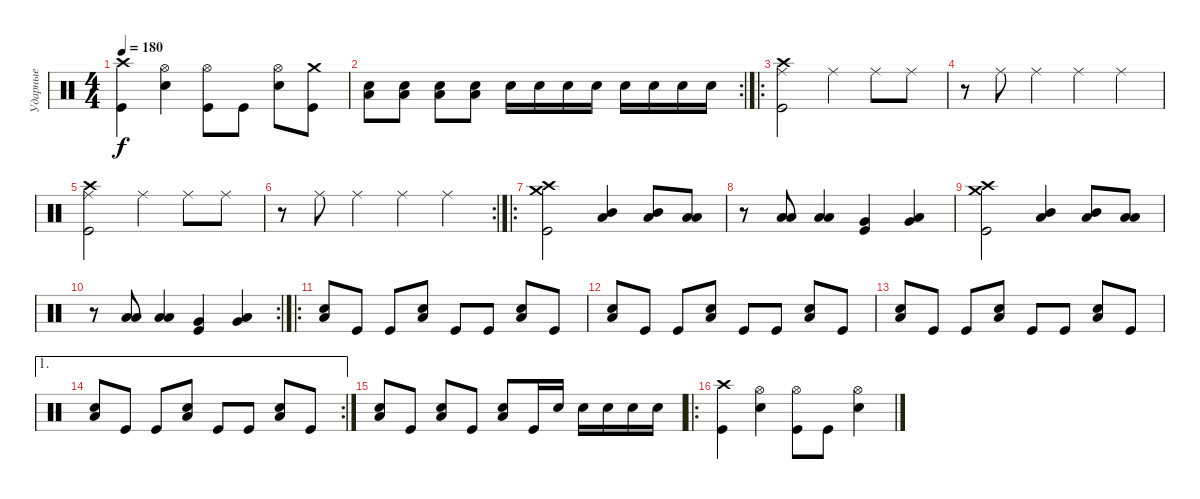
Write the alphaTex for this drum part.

\track ("Ударные" "Ударные") {instrument percussion}
\staff {score}
\articulation defaults
\ts (4 4)
\tempo 180
\clef neutral
\ks c
("Crash high (hit)" "Kick (hit)").4{dy f} ("Hi-Hat (open)" "Electric Snare (hit)").4 ("Hi-Hat (open)" "Kick (hit)").8 "Kick (hit)".8 ("Hi-Hat (open)" "Electric Snare (hit)").8 ("Crash medium (hit)" "Kick (hit)").8 |
\rc 2
("Low Floor Tom (hit)" "Electric Snare (hit)").8 ("Low Floor Tom (hit)" "Electric Snare (hit)").8 ("Low Floor Tom (hit)" "Electric Snare (hit)").8 ("Low Floor Tom (hit)" "Electric Snare (hit)").8 "Electric Snare (hit)".16 "Electric Snare (hit)".16 "Electric Snare (hit)".16 "Electric Snare (hit)".16 "Electric Snare (hit)".16 "Electric Snare (hit)".16 "Electric Snare (hit)".16 "Electric Snare (hit)".16 |
\ro
("Crash high (hit)" "Ride (middle)" "Kick (hit)").2 "Ride (middle)".4 "Ride (middle)".8 "Ride (middle)".8 |
r.8 "Ride (middle)".8 "Ride (middle)".4 "Ride (middle)".4 "Ride (middle)".4 |
("Crash high (hit)" "Ride (middle)" "Kick (hit)").2 "Ride (middle)".4 "Ride (middle)".8 "Ride (middle)".8 |
\rc 2
r.8 "Ride (middle)".8 "Ride (middle)".4 "Ride (middle)".4 "Ride (middle)".4 |
\ro
("Crash high (hit)" "Crash medium (hit)" "Kick (hit)").2 ("Mid Tom (hit)" "Low Floor Tom (hit)").4 ("Mid Tom (hit)" "Low Floor Tom (hit)").8 ("Low Tom (hit)" "Low Floor Tom (hit)").8 |
r.8 ("Low Tom (hit)" "Low Floor Tom (hit)").8 ("Low Tom (hit)" "Low Floor Tom (hit)").4 ("Very Low Tom (hit)" "Kick (hit)").4 ("Very Low Tom (hit)" "Low Floor Tom (hit)").4 |
("Crash high (hit)" "Crash medium (hit)" "Kick (hit)").2 ("Mid Tom (hit)" "Low Floor Tom (hit)").4 ("Mid Tom (hit)" "Low Floor Tom (hit)").8 ("Low Tom (hit)" "Low Floor Tom (hit)").8 |
\rc 2
r.8 ("Low Tom (hit)" "Low Floor Tom (hit)").8 ("Low Tom (hit)" "Low Floor Tom (hit)").4 ("Very Low Tom (hit)" "Kick (hit)").4 ("Very Low Tom (hit)" "Low Floor Tom (hit)").4 |
\ro
("Electric Snare (hit)" "Low Floor Tom (hit)").8 "Kick (hit)".8 "Kick (hit)".8 ("Electric Snare (hit)" "Low Floor Tom (hit)").8 "Kick (hit)".8 "Kick (hit)".8 ("Electric Snare (hit)" "Low Floor Tom (hit)").8 "Kick (hit)".8 |
("Electric Snare (hit)" "Low Floor Tom (hit)").8 "Kick (hit)".8 "Kick (hit)".8 ("Electric Snare (hit)" "Low Floor Tom (hit)").8 "Kick (hit)".8 "Kick (hit)".8 ("Electric Snare (hit)" "Low Floor Tom (hit)").8 "Kick (hit)".8 |
("Electric Snare (hit)" "Low Floor Tom (hit)").8 "Kick (hit)".8 "Kick (hit)".8 ("Electric Snare (hit)" "Low Floor Tom (hit)").8 "Kick (hit)".8 "Kick (hit)".8 ("Electric Snare (hit)" "Low Floor Tom (hit)").8 "Kick (hit)".8 |
\ae 1
\rc 2
("Electric Snare (hit)" "Low Floor Tom (hit)").8 "Kick (hit)".8 "Kick (hit)".8 ("Electric Snare (hit)" "Low Floor Tom (hit)").8 "Kick (hit)".8 "Kick (hit)".8 ("Electric Snare (hit)" "Low Floor Tom (hit)").8 "Kick (hit)".8 |
("Electric Snare (hit)" "Low Floor Tom (hit)").8 "Kick (hit)".8 ("Low Floor Tom (hit)" "Electric Snare (hit)").8 "Kick (hit)".8 ("Low Floor Tom (hit)" "Electric Snare (hit)").8 "Kick (hit)".16 "Electric Snare (hit)".16 "Electric Snare (hit)".16 "Electric Snare (hit)".16 "Electric Snare (hit)".16 "Electric Snare (hit)".16 |
\ro
("Crash high (hit)" "Kick (hit)").4 ("Hi-Hat (open)" "Electric Snare (hit)").4 ("Hi-Hat (open)" "Kick (hit)").8 "Kick (hit)".8 ("Hi-Hat (open)" "Electric Snare (hit)").4
